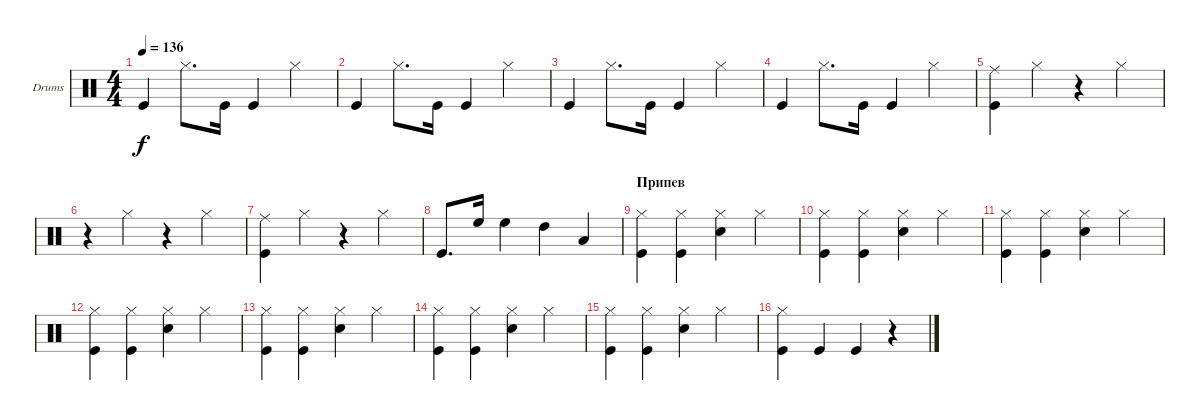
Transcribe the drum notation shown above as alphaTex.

\defaultSystemsLayout 4
\bracketExtendMode groupsimilarinstruments
\firstSystemTrackNameOrientation horizontal
\otherSystemsTrackNameOrientation horizontal
\track ("Drumkit" "Drums") {instrument percussion}
\staff {score}
\articulation defaults
\ts (4 4)
\tempo 136
\clef neutral
\ks c "Kick (hit)".4{dy f} "Hi-Hat (closed)".8{d} "Kick (hit)".16 "Kick (hit)".4 "Hi-Hat (closed)".4
|
"Kick (hit)".4 "Hi-Hat (closed)".8{d} "Kick (hit)".16 "Kick (hit)".4 "Hi-Hat (closed)".4 |
"Kick (hit)".4 "Hi-Hat (closed)".8{d} "Kick (hit)".16 "Kick (hit)".4 "Hi-Hat (closed)".4 |
\scale
0.347982 "Kick (hit)".4 "Hi-Hat (closed)".8{d} "Kick (hit)".16 "Kick (hit)".4 "Hi-Hat (closed)".4 |
\scale
0.221186 ("Ride (middle)" "Kick (hit)").4 "Hi-Hat (closed)".4 r.4 "Hi-Hat (closed)".4 |
\scale
0.431278 r.4 "Hi-Hat (closed)".4 r.4 "Hi-Hat (closed)".4 |
\scale
0.412587 ("Ride (middle)" "Kick (hit)").4 "Hi-Hat (closed)".4 r.4 "Hi-Hat (closed)".4 |
\scale
0.386863 "Kick (hit)".8{d} "High Floor Tom (hit)".16 "High Floor Tom (hit)".4 "High Tom (hit)".4 "Low Tom (hit)".4 |
\section ("" "Припев")
\scale
0.200436 ("Hi-Hat (closed)" "Kick (hit)").4 ("Hi-Hat (closed)" "Kick (hit)").4 ("Snare (hit) 2" "Hi-Hat (closed)").4 "Hi-Hat (closed)".4 |
("Hi-Hat (closed)" "Kick (hit)").4 ("Hi-Hat (closed)" "Kick (hit)").4 ("Snare (hit) 2" "Hi-Hat (closed)").4 "Hi-Hat (closed)".4 |
("Hi-Hat (closed)" "Kick (hit)").4 ("Hi-Hat (closed)" "Kick (hit)").4 ("Snare (hit) 2" "Hi-Hat (closed)").4 "Hi-Hat (closed)".4 |
("Hi-Hat (closed)" "Kick (hit)").4 ("Hi-Hat (closed)" "Kick (hit)").4 ("Snare (hit) 2" "Hi-Hat (closed)").4 "Hi-Hat (closed)".4 |
("Hi-Hat (closed)" "Kick (hit)").4 ("Hi-Hat (closed)" "Kick (hit)").4 ("Snare (hit) 2" "Hi-Hat (closed)").4 "Hi-Hat (closed)".4 |
("Hi-Hat (closed)" "Kick (hit)").4 ("Hi-Hat (closed)" "Kick (hit)").4 ("Snare (hit) 2" "Hi-Hat (closed)").4 "Hi-Hat (closed)".4 |
("Hi-Hat (closed)" "Kick (hit)").4 ("Hi-Hat (closed)" "Kick (hit)").4 ("Snare (hit) 2" "Hi-Hat (closed)").4 "Hi-Hat (closed)".4 |
\scale
0.431918 ("Kick (hit)" "Hi-Hat (closed)").4 "Kick (hit)".4 "Kick (hit)".4 r.4
